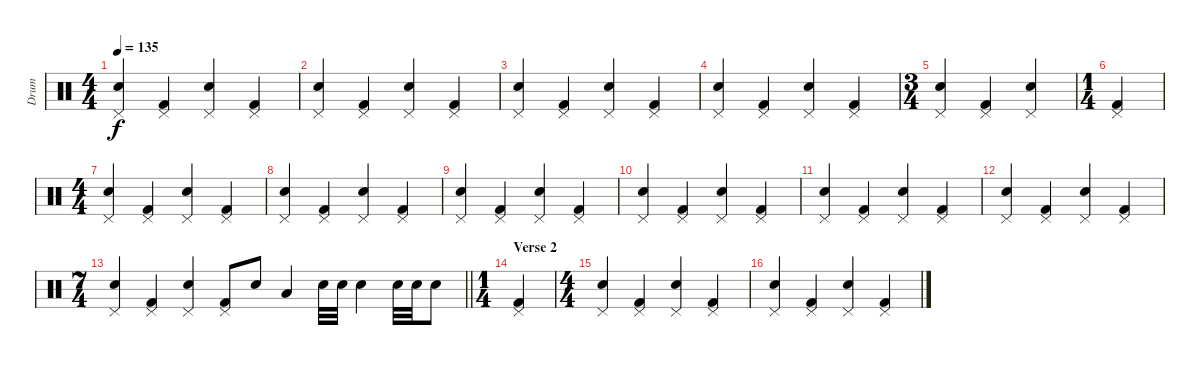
\track ("Drum" "Drum") {instrument percussion}
\staff {score}
\articulation defaults
\ts (4 4)
\tempo 135
\clef neutral
\ks c
("Electric Snare (hit)" "Pedal Hi-Hat (hit)").4{dy f} ("Kick (hit) 2" "Pedal Hi-Hat (hit)").4 ("Electric Snare (hit)" "Pedal Hi-Hat (hit)").4 ("Kick (hit) 2" "Pedal Hi-Hat (hit)").4 |
("Electric Snare (hit)" "Pedal Hi-Hat (hit)").4 ("Kick (hit) 2" "Pedal Hi-Hat (hit)").4 ("Electric Snare (hit)" "Pedal Hi-Hat (hit)").4 ("Kick (hit) 2" "Pedal Hi-Hat (hit)").4 |
("Electric Snare (hit)" "Pedal Hi-Hat (hit)").4 ("Kick (hit) 2" "Pedal Hi-Hat (hit)").4 ("Electric Snare (hit)" "Pedal Hi-Hat (hit)").4 ("Kick (hit) 2" "Pedal Hi-Hat (hit)").4 |
("Electric Snare (hit)" "Pedal Hi-Hat (hit)").4 ("Kick (hit) 2" "Pedal Hi-Hat (hit)").4 ("Electric Snare (hit)" "Pedal Hi-Hat (hit)").4 ("Kick (hit) 2" "Pedal Hi-Hat (hit)").4 |
\ts (3 4)
("Electric Snare (hit)" "Pedal Hi-Hat (hit)").4 ("Kick (hit) 2" "Pedal Hi-Hat (hit)").4 ("Electric Snare (hit)" "Pedal Hi-Hat (hit)").4 |
\ts (1 4)
("Kick (hit) 2" "Pedal Hi-Hat (hit)").4 |
\ts (4 4)
("Electric Snare (hit)" "Pedal Hi-Hat (hit)").4 ("Kick (hit) 2" "Pedal Hi-Hat (hit)").4 ("Electric Snare (hit)" "Pedal Hi-Hat (hit)").4 ("Kick (hit) 2" "Pedal Hi-Hat (hit)").4 |
("Electric Snare (hit)" "Pedal Hi-Hat (hit)").4 ("Kick (hit) 2" "Pedal Hi-Hat (hit)").4 ("Electric Snare (hit)" "Pedal Hi-Hat (hit)").4 ("Kick (hit) 2" "Pedal Hi-Hat (hit)").4 |
("Electric Snare (hit)" "Pedal Hi-Hat (hit)").4 ("Kick (hit) 2" "Pedal Hi-Hat (hit)").4 ("Electric Snare (hit)" "Pedal Hi-Hat (hit)").4 ("Kick (hit) 2" "Pedal Hi-Hat (hit)").4 |
("Electric Snare (hit)" "Pedal Hi-Hat (hit)").4 ("Kick (hit) 2" "Pedal Hi-Hat (hit)").4 ("Electric Snare (hit)" "Pedal Hi-Hat (hit)").4 ("Kick (hit) 2" "Pedal Hi-Hat (hit)").4 |
("Electric Snare (hit)" "Pedal Hi-Hat (hit)").4 ("Kick (hit) 2" "Pedal Hi-Hat (hit)").4 ("Electric Snare (hit)" "Pedal Hi-Hat (hit)").4 ("Kick (hit) 2" "Pedal Hi-Hat (hit)").4 |
("Electric Snare (hit)" "Pedal Hi-Hat (hit)").4 ("Kick (hit) 2" "Pedal Hi-Hat (hit)").4 ("Electric Snare (hit)" "Pedal Hi-Hat (hit)").4 ("Kick (hit) 2" "Pedal Hi-Hat (hit)").4 |
\ts (7 4)
\barLineRight lightlight
("Electric Snare (hit)" "Pedal Hi-Hat (hit)").4 ("Kick (hit) 2" "Pedal Hi-Hat (hit)").4 ("Electric Snare (hit)" "Pedal Hi-Hat (hit)").4 ("Kick (hit) 2" "Pedal Hi-Hat (hit)").8 "Electric Snare (hit)".8 "Low Tom (hit)".4 "Electric Snare (hit)".32 "Electric Snare (hit)".32 "Electric Snare (hit)".4 "Electric Snare (hit)".32 "Electric Snare (hit)".32 "Electric Snare (hit)".8 |
\ts (1 4)
\section ("" "Verse 2")
("Kick (hit) 2" "Pedal Hi-Hat (hit)").4 |
\ts (4 4)
("Electric Snare (hit)" "Pedal Hi-Hat (hit)").4 ("Kick (hit) 2" "Pedal Hi-Hat (hit)").4 ("Electric Snare (hit)" "Pedal Hi-Hat (hit)").4 ("Kick (hit) 2" "Pedal Hi-Hat (hit)").4 |
("Electric Snare (hit)" "Pedal Hi-Hat (hit)").4 ("Kick (hit) 2" "Pedal Hi-Hat (hit)").4 ("Electric Snare (hit)" "Pedal Hi-Hat (hit)").4 ("Kick (hit) 2" "Pedal Hi-Hat (hit)").4
